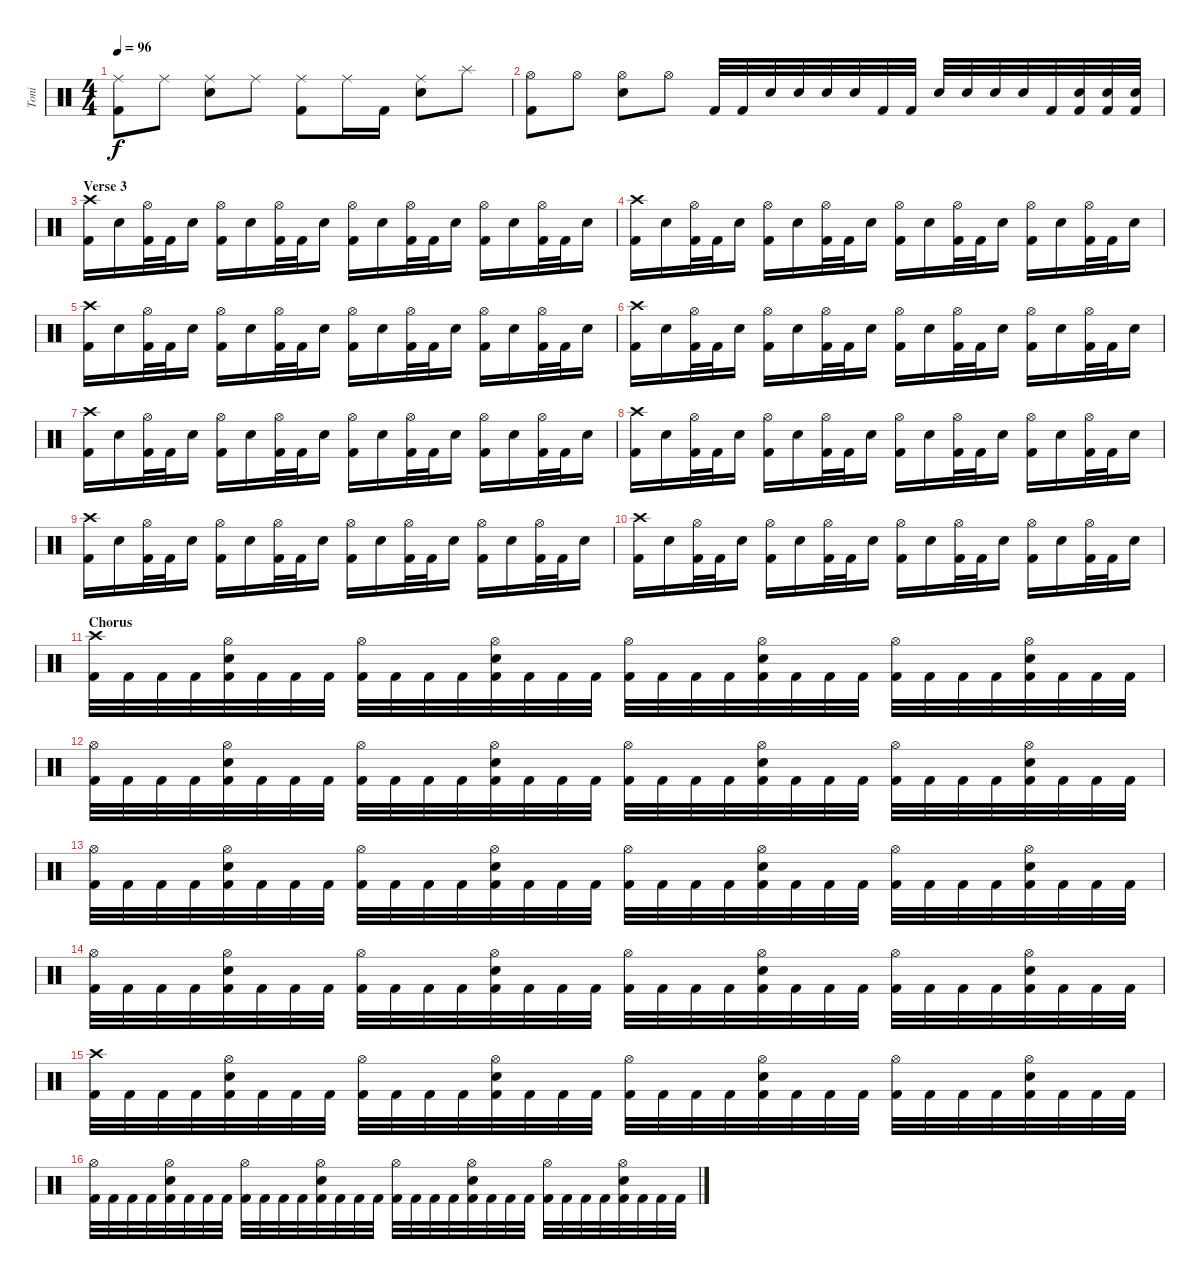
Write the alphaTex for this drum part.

\track ("Toni" "Toni") {instrument percussion}
\staff {score}
\articulation defaults
\ts (4 4)
\tempo 96
\clef neutral
\ks c
("Ride (middle)" "Kick (hit) 2").8{dy f} "Ride (middle)".8 ("Ride (middle)" "Electric Snare (hit)").8 "Ride (middle)".8 ("Ride (middle)" "Kick (hit) 2").8 "Ride (middle)".16 "Kick (hit) 2".16 ("Ride (middle)" "Electric Snare (hit)").8 "Splash (hit)".8 |
("Hi-Hat (open)" "Kick (hit) 2").8 "Hi-Hat (open)".8 ("Hi-Hat (open)" "Electric Snare (hit)").8 "Hi-Hat (open)".8 "Kick (hit) 2".32 "Kick (hit) 2".32 "Electric Snare (hit)".32 "Electric Snare (hit)".32 "Electric Snare (hit)".32 "Electric Snare (hit)".32 "Kick (hit) 2".32 "Kick (hit) 2".32 "Electric Snare (hit)".32 "Electric Snare (hit)".32 "Electric Snare (hit)".32 "Electric Snare (hit)".32 "Kick (hit) 2".32 ("Electric Snare (hit)" "Kick (hit) 2").32 ("Electric Snare (hit)" "Kick (hit) 2").32 ("Electric Snare (hit)" "Kick (hit) 2").32 |
\section ("" "Verse 3")
("Crash high (hit)" "Kick (hit) 2").16 "Electric Snare (hit)".16 ("Hi-Hat (open)" "Kick (hit) 2").32 "Kick (hit) 2".32 "Electric Snare (hit)".16 ("Hi-Hat (open)" "Kick (hit) 2").16 "Electric Snare (hit)".16 ("Hi-Hat (open)" "Kick (hit) 2").32 "Kick (hit) 2".32 "Electric Snare (hit)".16 ("Hi-Hat (open)" "Kick (hit) 2").16 "Electric Snare (hit)".16 ("Hi-Hat (open)" "Kick (hit) 2").32 "Kick (hit) 2".32 "Electric Snare (hit)".16 ("Hi-Hat (open)" "Kick (hit) 2").16 "Electric Snare (hit)".16 ("Hi-Hat (open)" "Kick (hit) 2").32 "Kick (hit) 2".32 "Electric Snare (hit)".16 |
("Crash high (hit)" "Kick (hit) 2").16 "Electric Snare (hit)".16 ("Hi-Hat (open)" "Kick (hit) 2").32 "Kick (hit) 2".32 "Electric Snare (hit)".16 ("Hi-Hat (open)" "Kick (hit) 2").16 "Electric Snare (hit)".16 ("Hi-Hat (open)" "Kick (hit) 2").32 "Kick (hit) 2".32 "Electric Snare (hit)".16 ("Hi-Hat (open)" "Kick (hit) 2").16 "Electric Snare (hit)".16 ("Hi-Hat (open)" "Kick (hit) 2").32 "Kick (hit) 2".32 "Electric Snare (hit)".16 ("Hi-Hat (open)" "Kick (hit) 2").16 "Electric Snare (hit)".16 ("Hi-Hat (open)" "Kick (hit) 2").32 "Kick (hit) 2".32 "Electric Snare (hit)".16 |
("Crash high (hit)" "Kick (hit) 2").16 "Electric Snare (hit)".16 ("Hi-Hat (open)" "Kick (hit) 2").32 "Kick (hit) 2".32 "Electric Snare (hit)".16 ("Hi-Hat (open)" "Kick (hit) 2").16 "Electric Snare (hit)".16 ("Hi-Hat (open)" "Kick (hit) 2").32 "Kick (hit) 2".32 "Electric Snare (hit)".16 ("Hi-Hat (open)" "Kick (hit) 2").16 "Electric Snare (hit)".16 ("Hi-Hat (open)" "Kick (hit) 2").32 "Kick (hit) 2".32 "Electric Snare (hit)".16 ("Hi-Hat (open)" "Kick (hit) 2").16 "Electric Snare (hit)".16 ("Hi-Hat (open)" "Kick (hit) 2").32 "Kick (hit) 2".32 "Electric Snare (hit)".16 |
("Crash high (hit)" "Kick (hit) 2").16 "Electric Snare (hit)".16 ("Hi-Hat (open)" "Kick (hit) 2").32 "Kick (hit) 2".32 "Electric Snare (hit)".16 ("Hi-Hat (open)" "Kick (hit) 2").16 "Electric Snare (hit)".16 ("Hi-Hat (open)" "Kick (hit) 2").32 "Kick (hit) 2".32 "Electric Snare (hit)".16 ("Hi-Hat (open)" "Kick (hit) 2").16 "Electric Snare (hit)".16 ("Hi-Hat (open)" "Kick (hit) 2").32 "Kick (hit) 2".32 "Electric Snare (hit)".16 ("Hi-Hat (open)" "Kick (hit) 2").16 "Electric Snare (hit)".16 ("Hi-Hat (open)" "Kick (hit) 2").32 "Kick (hit) 2".32 "Electric Snare (hit)".16 |
("Crash high (hit)" "Kick (hit) 2").16 "Electric Snare (hit)".16 ("Hi-Hat (open)" "Kick (hit) 2").32 "Kick (hit) 2".32 "Electric Snare (hit)".16 ("Hi-Hat (open)" "Kick (hit) 2").16 "Electric Snare (hit)".16 ("Hi-Hat (open)" "Kick (hit) 2").32 "Kick (hit) 2".32 "Electric Snare (hit)".16 ("Hi-Hat (open)" "Kick (hit) 2").16 "Electric Snare (hit)".16 ("Hi-Hat (open)" "Kick (hit) 2").32 "Kick (hit) 2".32 "Electric Snare (hit)".16 ("Hi-Hat (open)" "Kick (hit) 2").16 "Electric Snare (hit)".16 ("Hi-Hat (open)" "Kick (hit) 2").32 "Kick (hit) 2".32 "Electric Snare (hit)".16 |
("Crash high (hit)" "Kick (hit) 2").16 "Electric Snare (hit)".16 ("Hi-Hat (open)" "Kick (hit) 2").32 "Kick (hit) 2".32 "Electric Snare (hit)".16 ("Hi-Hat (open)" "Kick (hit) 2").16 "Electric Snare (hit)".16 ("Hi-Hat (open)" "Kick (hit) 2").32 "Kick (hit) 2".32 "Electric Snare (hit)".16 ("Hi-Hat (open)" "Kick (hit) 2").16 "Electric Snare (hit)".16 ("Hi-Hat (open)" "Kick (hit) 2").32 "Kick (hit) 2".32 "Electric Snare (hit)".16 ("Hi-Hat (open)" "Kick (hit) 2").16 "Electric Snare (hit)".16 ("Hi-Hat (open)" "Kick (hit) 2").32 "Kick (hit) 2".32 "Electric Snare (hit)".16 |
("Crash high (hit)" "Kick (hit) 2").16 "Electric Snare (hit)".16 ("Hi-Hat (open)" "Kick (hit) 2").32 "Kick (hit) 2".32 "Electric Snare (hit)".16 ("Hi-Hat (open)" "Kick (hit) 2").16 "Electric Snare (hit)".16 ("Hi-Hat (open)" "Kick (hit) 2").32 "Kick (hit) 2".32 "Electric Snare (hit)".16 ("Hi-Hat (open)" "Kick (hit) 2").16 "Electric Snare (hit)".16 ("Hi-Hat (open)" "Kick (hit) 2").32 "Kick (hit) 2".32 "Electric Snare (hit)".16 ("Hi-Hat (open)" "Kick (hit) 2").16 "Electric Snare (hit)".16 ("Hi-Hat (open)" "Kick (hit) 2").32 "Kick (hit) 2".32 "Electric Snare (hit)".16 |
("Crash high (hit)" "Kick (hit) 2").16 "Electric Snare (hit)".16 ("Hi-Hat (open)" "Kick (hit) 2").32 "Kick (hit) 2".32 "Electric Snare (hit)".16 ("Hi-Hat (open)" "Kick (hit) 2").16 "Electric Snare (hit)".16 ("Hi-Hat (open)" "Kick (hit) 2").32 "Kick (hit) 2".32 "Electric Snare (hit)".16 ("Hi-Hat (open)" "Kick (hit) 2").16 "Electric Snare (hit)".16 ("Hi-Hat (open)" "Kick (hit) 2").32 "Kick (hit) 2".32 "Electric Snare (hit)".16 ("Hi-Hat (open)" "Kick (hit) 2").16 "Electric Snare (hit)".16 ("Hi-Hat (open)" "Kick (hit) 2").32 "Kick (hit) 2".32 "Electric Snare (hit)".16 |
\section ("" "Chorus")
("Crash high (hit)" "Kick (hit) 2").32 "Kick (hit) 2".32 "Kick (hit) 2".32 "Kick (hit) 2".32 ("Hi-Hat (open)" "Electric Snare (hit)" "Kick (hit) 2").32 "Kick (hit) 2".32 "Kick (hit) 2".32 "Kick (hit) 2".32 ("Hi-Hat (open)" "Kick (hit) 2").32 "Kick (hit) 2".32 "Kick (hit) 2".32 "Kick (hit) 2".32 ("Hi-Hat (open)" "Electric Snare (hit)" "Kick (hit) 2").32 "Kick (hit) 2".32 "Kick (hit) 2".32 "Kick (hit) 2".32 ("Hi-Hat (open)" "Kick (hit) 2").32 "Kick (hit) 2".32 "Kick (hit) 2".32 "Kick (hit) 2".32 ("Hi-Hat (open)" "Electric Snare (hit)" "Kick (hit) 2").32 "Kick (hit) 2".32 "Kick (hit) 2".32 "Kick (hit) 2".32 ("Hi-Hat (open)" "Kick (hit) 2").32 "Kick (hit) 2".32 "Kick (hit) 2".32 "Kick (hit) 2".32 ("Hi-Hat (open)" "Electric Snare (hit)" "Kick (hit) 2").32 "Kick (hit) 2".32 "Kick (hit) 2".32 "Kick (hit) 2".32 |
("Hi-Hat (open)" "Kick (hit) 2").32 "Kick (hit) 2".32 "Kick (hit) 2".32 "Kick (hit) 2".32 ("Hi-Hat (open)" "Electric Snare (hit)" "Kick (hit) 2").32 "Kick (hit) 2".32 "Kick (hit) 2".32 "Kick (hit) 2".32 ("Hi-Hat (open)" "Kick (hit) 2").32 "Kick (hit) 2".32 "Kick (hit) 2".32 "Kick (hit) 2".32 ("Hi-Hat (open)" "Electric Snare (hit)" "Kick (hit) 2").32 "Kick (hit) 2".32 "Kick (hit) 2".32 "Kick (hit) 2".32 ("Hi-Hat (open)" "Kick (hit) 2").32 "Kick (hit) 2".32 "Kick (hit) 2".32 "Kick (hit) 2".32 ("Hi-Hat (open)" "Electric Snare (hit)" "Kick (hit) 2").32 "Kick (hit) 2".32 "Kick (hit) 2".32 "Kick (hit) 2".32 ("Hi-Hat (open)" "Kick (hit) 2").32 "Kick (hit) 2".32 "Kick (hit) 2".32 "Kick (hit) 2".32 ("Hi-Hat (open)" "Electric Snare (hit)" "Kick (hit) 2").32 "Kick (hit) 2".32 "Kick (hit) 2".32 "Kick (hit) 2".32 |
("Hi-Hat (open)" "Kick (hit) 2").32 "Kick (hit) 2".32 "Kick (hit) 2".32 "Kick (hit) 2".32 ("Hi-Hat (open)" "Electric Snare (hit)" "Kick (hit) 2").32 "Kick (hit) 2".32 "Kick (hit) 2".32 "Kick (hit) 2".32 ("Hi-Hat (open)" "Kick (hit) 2").32 "Kick (hit) 2".32 "Kick (hit) 2".32 "Kick (hit) 2".32 ("Hi-Hat (open)" "Electric Snare (hit)" "Kick (hit) 2").32 "Kick (hit) 2".32 "Kick (hit) 2".32 "Kick (hit) 2".32 ("Hi-Hat (open)" "Kick (hit) 2").32 "Kick (hit) 2".32 "Kick (hit) 2".32 "Kick (hit) 2".32 ("Hi-Hat (open)" "Electric Snare (hit)" "Kick (hit) 2").32 "Kick (hit) 2".32 "Kick (hit) 2".32 "Kick (hit) 2".32 ("Hi-Hat (open)" "Kick (hit) 2").32 "Kick (hit) 2".32 "Kick (hit) 2".32 "Kick (hit) 2".32 ("Hi-Hat (open)" "Electric Snare (hit)" "Kick (hit) 2").32 "Kick (hit) 2".32 "Kick (hit) 2".32 "Kick (hit) 2".32 |
("Hi-Hat (open)" "Kick (hit) 2").32 "Kick (hit) 2".32 "Kick (hit) 2".32 "Kick (hit) 2".32 ("Hi-Hat (open)" "Electric Snare (hit)" "Kick (hit) 2").32 "Kick (hit) 2".32 "Kick (hit) 2".32 "Kick (hit) 2".32 ("Hi-Hat (open)" "Kick (hit) 2").32 "Kick (hit) 2".32 "Kick (hit) 2".32 "Kick (hit) 2".32 ("Hi-Hat (open)" "Electric Snare (hit)" "Kick (hit) 2").32 "Kick (hit) 2".32 "Kick (hit) 2".32 "Kick (hit) 2".32 ("Hi-Hat (open)" "Kick (hit) 2").32 "Kick (hit) 2".32 "Kick (hit) 2".32 "Kick (hit) 2".32 ("Hi-Hat (open)" "Electric Snare (hit)" "Kick (hit) 2").32 "Kick (hit) 2".32 "Kick (hit) 2".32 "Kick (hit) 2".32 ("Hi-Hat (open)" "Kick (hit) 2").32 "Kick (hit) 2".32 "Kick (hit) 2".32 "Kick (hit) 2".32 ("Hi-Hat (open)" "Electric Snare (hit)" "Kick (hit) 2").32 "Kick (hit) 2".32 "Kick (hit) 2".32 "Kick (hit) 2".32 |
("Crash high (hit)" "Kick (hit) 2").32 "Kick (hit) 2".32 "Kick (hit) 2".32 "Kick (hit) 2".32 ("Hi-Hat (open)" "Electric Snare (hit)" "Kick (hit) 2").32 "Kick (hit) 2".32 "Kick (hit) 2".32 "Kick (hit) 2".32 ("Hi-Hat (open)" "Kick (hit) 2").32 "Kick (hit) 2".32 "Kick (hit) 2".32 "Kick (hit) 2".32 ("Hi-Hat (open)" "Electric Snare (hit)" "Kick (hit) 2").32 "Kick (hit) 2".32 "Kick (hit) 2".32 "Kick (hit) 2".32 ("Hi-Hat (open)" "Kick (hit) 2").32 "Kick (hit) 2".32 "Kick (hit) 2".32 "Kick (hit) 2".32 ("Hi-Hat (open)" "Electric Snare (hit)" "Kick (hit) 2").32 "Kick (hit) 2".32 "Kick (hit) 2".32 "Kick (hit) 2".32 ("Hi-Hat (open)" "Kick (hit) 2").32 "Kick (hit) 2".32 "Kick (hit) 2".32 "Kick (hit) 2".32 ("Hi-Hat (open)" "Electric Snare (hit)" "Kick (hit) 2").32 "Kick (hit) 2".32 "Kick (hit) 2".32 "Kick (hit) 2".32 |
("Hi-Hat (open)" "Kick (hit) 2").32 "Kick (hit) 2".32 "Kick (hit) 2".32 "Kick (hit) 2".32 ("Hi-Hat (open)" "Electric Snare (hit)" "Kick (hit) 2").32 "Kick (hit) 2".32 "Kick (hit) 2".32 "Kick (hit) 2".32 ("Hi-Hat (open)" "Kick (hit) 2").32 "Kick (hit) 2".32 "Kick (hit) 2".32 "Kick (hit) 2".32 ("Hi-Hat (open)" "Electric Snare (hit)" "Kick (hit) 2").32 "Kick (hit) 2".32 "Kick (hit) 2".32 "Kick (hit) 2".32 ("Hi-Hat (open)" "Kick (hit) 2").32 "Kick (hit) 2".32 "Kick (hit) 2".32 "Kick (hit) 2".32 ("Hi-Hat (open)" "Electric Snare (hit)" "Kick (hit) 2").32 "Kick (hit) 2".32 "Kick (hit) 2".32 "Kick (hit) 2".32 ("Hi-Hat (open)" "Kick (hit) 2").32 "Kick (hit) 2".32 "Kick (hit) 2".32 "Kick (hit) 2".32 ("Hi-Hat (open)" "Electric Snare (hit)" "Kick (hit) 2").32 "Kick (hit) 2".32 "Kick (hit) 2".32 "Kick (hit) 2".32
